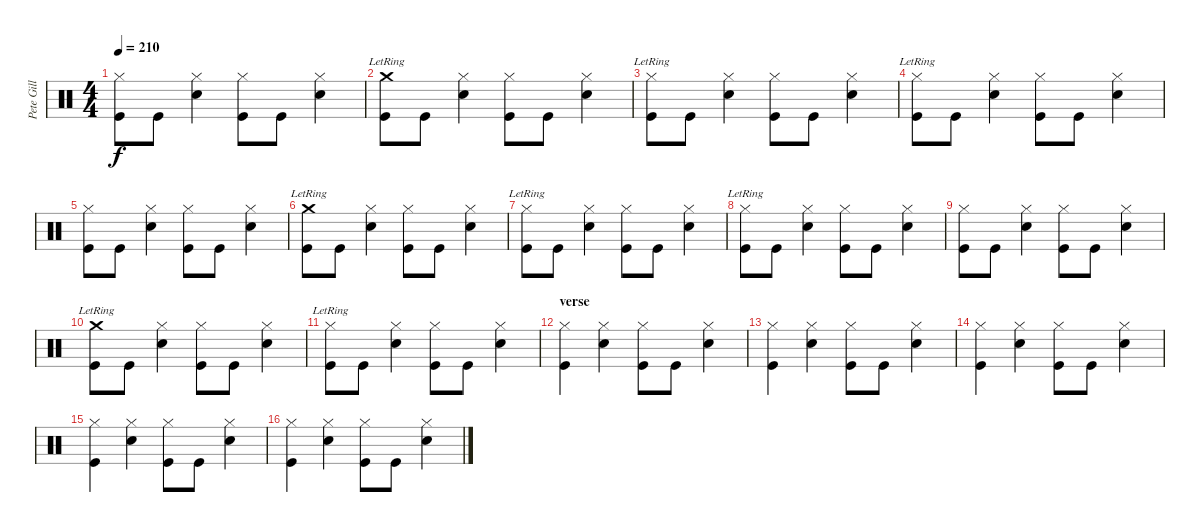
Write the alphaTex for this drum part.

\track ("Pete Gill" "Pete Gill") {instrument percussion}
\staff {score}
\articulation defaults
\ts (4 4)
\tempo 210
\clef neutral
\ks c
("Hi-Hat (closed)" "Kick (hit)").8{dy f} "Kick (hit)".8 ("Hi-Hat (closed)" "Snare (hit) 2").4 ("Hi-Hat (closed)" "Kick (hit)").8 "Kick (hit)".8 ("Hi-Hat (closed)" "Snare (hit) 2").4 |
("Crash medium (hit)"{lr} "Kick (hit)").8 "Kick (hit)".8 ("Hi-Hat (closed)" "Snare (hit) 2").4 ("Hi-Hat (closed)" "Kick (hit)").8 "Kick (hit)".8 ("Hi-Hat (closed)" "Snare (hit) 2").4 |
("Hi-Hat (closed)"{lr} "Kick (hit)").8 "Kick (hit)".8 ("Hi-Hat (closed)" "Snare (hit) 2").4 ("Hi-Hat (closed)" "Kick (hit)").8 "Kick (hit)".8 ("Hi-Hat (closed)" "Snare (hit) 2").4 |
("Hi-Hat (closed)"{lr} "Kick (hit)").8 "Kick (hit)".8 ("Hi-Hat (closed)" "Snare (hit) 2").4 ("Hi-Hat (closed)" "Kick (hit)").8 "Kick (hit)".8 ("Hi-Hat (closed)" "Snare (hit) 2").4 |
("Hi-Hat (closed)" "Kick (hit)").8 "Kick (hit)".8 ("Hi-Hat (closed)" "Snare (hit) 2").4 ("Hi-Hat (closed)" "Kick (hit)").8 "Kick (hit)".8 ("Hi-Hat (closed)" "Snare (hit) 2").4 |
("Crash medium (hit)"{lr} "Kick (hit)").8 "Kick (hit)".8 ("Hi-Hat (closed)" "Snare (hit) 2").4 ("Hi-Hat (closed)" "Kick (hit)").8 "Kick (hit)".8 ("Hi-Hat (closed)" "Snare (hit) 2").4 |
("Hi-Hat (closed)"{lr} "Kick (hit)").8 "Kick (hit)".8 ("Hi-Hat (closed)" "Snare (hit) 2").4 ("Hi-Hat (closed)" "Kick (hit)").8 "Kick (hit)".8 ("Hi-Hat (closed)" "Snare (hit) 2").4 |
("Hi-Hat (closed)"{lr} "Kick (hit)").8 "Kick (hit)".8 ("Hi-Hat (closed)" "Snare (hit) 2").4 ("Hi-Hat (closed)" "Kick (hit)").8 "Kick (hit)".8 ("Hi-Hat (closed)" "Snare (hit) 2").4 |
("Hi-Hat (closed)" "Kick (hit)").8 "Kick (hit)".8 ("Hi-Hat (closed)" "Snare (hit) 2").4 ("Hi-Hat (closed)" "Kick (hit)").8 "Kick (hit)".8 ("Hi-Hat (closed)" "Snare (hit) 2").4 |
("Crash medium (hit)"{lr} "Kick (hit)").8 "Kick (hit)".8 ("Hi-Hat (closed)" "Snare (hit) 2").4 ("Hi-Hat (closed)" "Kick (hit)").8 "Kick (hit)".8 ("Hi-Hat (closed)" "Snare (hit) 2").4 |
("Hi-Hat (closed)"{lr} "Kick (hit)").8 "Kick (hit)".8 ("Hi-Hat (closed)" "Snare (hit) 2").4 ("Hi-Hat (closed)" "Kick (hit)").8 "Kick (hit)".8 ("Hi-Hat (closed)" "Snare (hit) 2").4 |
\section ("" "verse")
("Hi-Hat (closed)" "Kick (hit)").4 ("Hi-Hat (closed)" "Snare (hit) 2").4 ("Hi-Hat (closed)" "Kick (hit)").8 "Kick (hit)".8 ("Hi-Hat (closed)" "Snare (hit) 2").4 |
("Hi-Hat (closed)" "Kick (hit)").4 ("Hi-Hat (closed)" "Snare (hit) 2").4 ("Hi-Hat (closed)" "Kick (hit)").8 "Kick (hit)".8 ("Hi-Hat (closed)" "Snare (hit) 2").4 |
("Hi-Hat (closed)" "Kick (hit)").4 ("Hi-Hat (closed)" "Snare (hit) 2").4 ("Hi-Hat (closed)" "Kick (hit)").8 "Kick (hit)".8 ("Hi-Hat (closed)" "Snare (hit) 2").4 |
("Hi-Hat (closed)" "Kick (hit)").4 ("Hi-Hat (closed)" "Snare (hit) 2").4 ("Hi-Hat (closed)" "Kick (hit)").8 "Kick (hit)".8 ("Hi-Hat (closed)" "Snare (hit) 2").4 |
("Hi-Hat (closed)" "Kick (hit)").4 ("Hi-Hat (closed)" "Snare (hit) 2").4 ("Hi-Hat (closed)" "Kick (hit)").8 "Kick (hit)".8 ("Hi-Hat (closed)" "Snare (hit) 2").4
